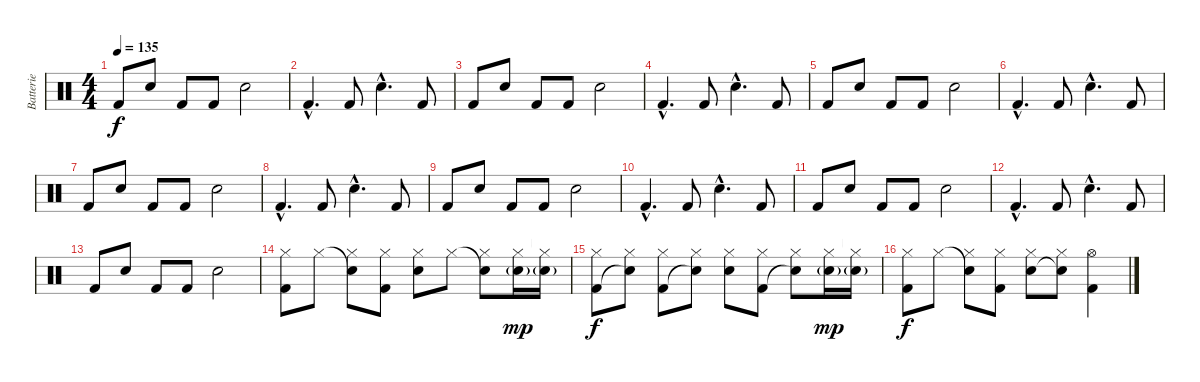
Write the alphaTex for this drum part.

\track ("Batterie" "Batterie") {instrument percussion}
\staff {score}
\articulation defaults
\ts (4 4)
\tempo 135
\clef neutral
\ks c "Kick (hit) 2".8{dy f} "Snare (hit) 2".8 "Kick (hit) 2".8 "Kick (hit) 2".8 "Snare (hit) 2".2
|
"Kick (hit) 2"{hac}.4{d} "Kick (hit) 2".8 "Snare (hit) 2"{hac}.4{d} "Kick (hit) 2".8 |
"Kick (hit) 2".8 "Snare (hit) 2".8 "Kick (hit) 2".8 "Kick (hit) 2".8 "Snare (hit) 2".2 |
"Kick (hit) 2"{hac}.4{d} "Kick (hit) 2".8 "Snare (hit) 2"{hac}.4{d} "Kick (hit) 2".8 |
"Kick (hit) 2".8 "Snare (hit) 2".8 "Kick (hit) 2".8 "Kick (hit) 2".8 "Snare (hit) 2".2 |
"Kick (hit) 2"{hac}.4{d} "Kick (hit) 2".8 "Snare (hit) 2"{hac}.4{d} "Kick (hit) 2".8 |
"Kick (hit) 2".8 "Snare (hit) 2".8 "Kick (hit) 2".8 "Kick (hit) 2".8 "Snare (hit) 2".2 |
"Kick (hit) 2"{hac}.4{d} "Kick (hit) 2".8 "Snare (hit) 2"{hac}.4{d} "Kick (hit) 2".8 |
"Kick (hit) 2".8 "Snare (hit) 2".8 "Kick (hit) 2".8 "Kick (hit) 2".8 "Snare (hit) 2".2 |
"Kick (hit) 2"{hac}.4{d} "Kick (hit) 2".8 "Snare (hit) 2"{hac}.4{d} "Kick (hit) 2".8 |
"Kick (hit) 2".8 "Snare (hit) 2".8 "Kick (hit) 2".8 "Kick (hit) 2".8 "Snare (hit) 2".2 |
"Kick (hit) 2"{hac}.4{d} "Kick (hit) 2".8 "Snare (hit) 2"{hac}.4{d} "Kick (hit) 2".8 |
"Kick (hit) 2".8 "Snare (hit) 2".8 "Kick (hit) 2".8 "Kick (hit) 2".8 "Snare (hit) 2".2 |
("Kick (hit) 2" "Hi-Hat (closed)").8{volume 10} "Hi-Hat (closed)".8 ("Snare (hit)"{t} "Hi-Hat (closed)").8 ("Kick (hit) 2" "Hi-Hat (closed)").8 ("Snare (hit) 2" "Hi-Hat (closed)").8 "Hi-Hat (closed)".8 ("Snare (hit)"{t} "Hi-Hat (closed)").8 ("Snare (hit) 2"{g} "Hi-Hat (closed)").16{dy mp} ("Snare (hit) 2"{g} "Hi-Hat (closed)"{t}).16 |
("Kick (hit) 2" "Hi-Hat (closed)").8{dy f} ("Snare (hit)"{t} "Hi-Hat (closed)").8 ("Kick (hit) 2" "Hi-Hat (closed)").8 ("Snare (hit)"{t} "Hi-Hat (closed)").8 ("Snare (hit) 2" "Hi-Hat (closed)").8 ("Kick (hit) 2" "Hi-Hat (closed)").8 ("Snare (hit)"{t} "Hi-Hat (closed)").8 ("Snare (hit) 2"{g} "Hi-Hat (closed)").16{dy mp} ("Snare (hit) 2"{g} "Hi-Hat (closed)"{t}).16 |
("Kick (hit) 2" "Hi-Hat (closed)").8{dy f} "Hi-Hat (closed)".8 ("Snare (hit)"{t} "Hi-Hat (closed)").8 ("Kick (hit) 2" "Hi-Hat (closed)").8 ("Snare (hit) 2" "Hi-Hat (closed)").8 ("Snare (hit)"{t} "Hi-Hat (closed)").8 ("Kick (hit) 2" "Hi-Hat (open)").4
